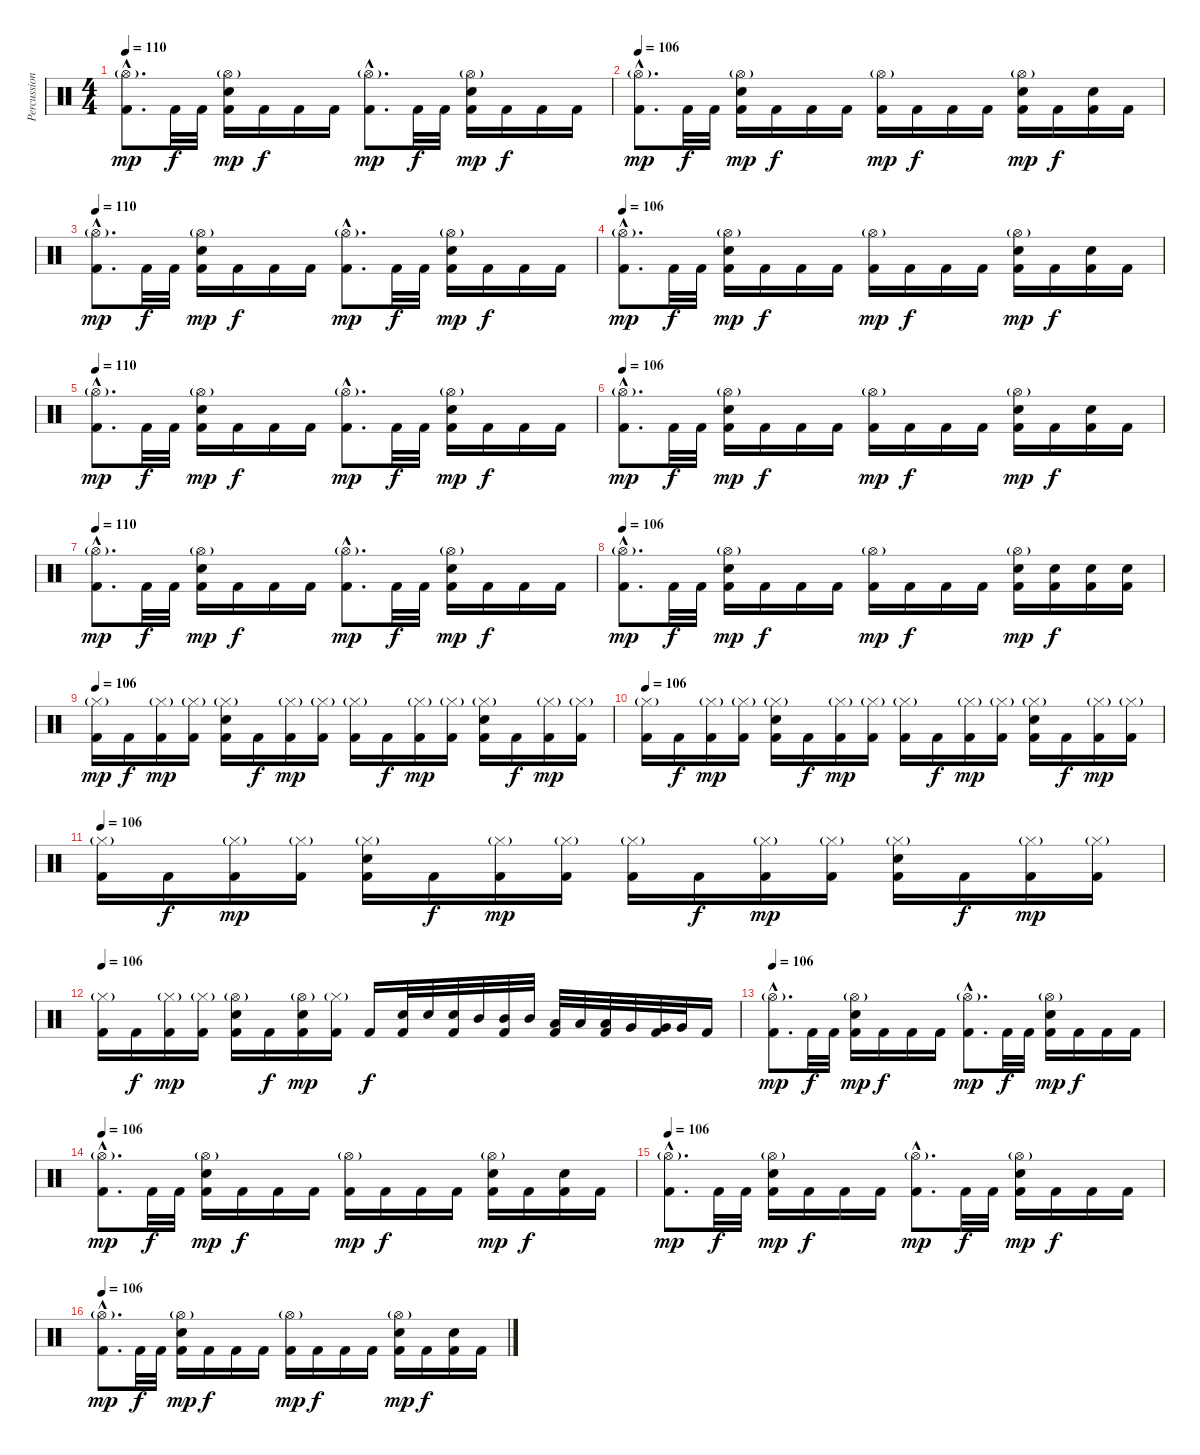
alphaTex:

\track ("Percussions" "Percussion") {instrument percussion}
\staff {score}
\articulation defaults
\ts (4 4)
\tempo 106
\tempo 110
\clef neutral
\ks c
("Hi-Hat (open)"{g hac} "Kick (hit) 2"{hac}).8{d dy mp} "Kick (hit) 2".32{dy f} "Kick (hit) 2".32 ("Hi-Hat (open)"{g} "Electric Snare (hit)" "Kick (hit) 2").16{dy mp} "Kick (hit) 2".16{dy f} "Kick (hit) 2".16 "Kick (hit) 2".16 ("Hi-Hat (open)"{g hac} "Kick (hit) 2"{hac}).8{d dy mp} "Kick (hit) 2".32{dy f} "Kick (hit) 2".32 ("Hi-Hat (open)"{g} "Electric Snare (hit)" "Kick (hit) 2").16{dy mp} "Kick (hit) 2".16{dy f} "Kick (hit) 2".16 "Kick (hit) 2".16 |
\tempo 106
("Hi-Hat (open)"{g hac} "Kick (hit) 2"{hac}).8{d dy mp} "Kick (hit) 2".32{dy f} "Kick (hit) 2".32 ("Hi-Hat (open)"{g} "Electric Snare (hit)" "Kick (hit) 2").16{dy mp} "Kick (hit) 2".16{dy f} "Kick (hit) 2".16 "Kick (hit) 2".16 ("Hi-Hat (open)"{g} "Kick (hit) 2").16{dy mp} "Kick (hit) 2".16{dy f} "Kick (hit) 2".16 "Kick (hit) 2".16 ("Hi-Hat (open)"{g} "Electric Snare (hit)" "Kick (hit) 2").16{dy mp} "Kick (hit) 2".16{dy f} ("Electric Snare (hit)" "Kick (hit) 2").16 "Kick (hit) 2".16 |
\tempo 106
\tempo 110
("Hi-Hat (open)"{g hac} "Kick (hit) 2"{hac}).8{d dy mp} "Kick (hit) 2".32{dy f} "Kick (hit) 2".32 ("Hi-Hat (open)"{g} "Electric Snare (hit)" "Kick (hit) 2").16{dy mp} "Kick (hit) 2".16{dy f} "Kick (hit) 2".16 "Kick (hit) 2".16 ("Hi-Hat (open)"{g hac} "Kick (hit) 2"{hac}).8{d dy mp} "Kick (hit) 2".32{dy f} "Kick (hit) 2".32 ("Hi-Hat (open)"{g} "Electric Snare (hit)" "Kick (hit) 2").16{dy mp} "Kick (hit) 2".16{dy f} "Kick (hit) 2".16 "Kick (hit) 2".16 |
\tempo 106
("Hi-Hat (open)"{g hac} "Kick (hit) 2"{hac}).8{d dy mp} "Kick (hit) 2".32{dy f} "Kick (hit) 2".32 ("Hi-Hat (open)"{g} "Electric Snare (hit)" "Kick (hit) 2").16{dy mp} "Kick (hit) 2".16{dy f} "Kick (hit) 2".16 "Kick (hit) 2".16 ("Hi-Hat (open)"{g} "Kick (hit) 2").16{dy mp} "Kick (hit) 2".16{dy f} "Kick (hit) 2".16 "Kick (hit) 2".16 ("Hi-Hat (open)"{g} "Electric Snare (hit)" "Kick (hit) 2").16{dy mp} "Kick (hit) 2".16{dy f} ("Electric Snare (hit)" "Kick (hit) 2").16 "Kick (hit) 2".16 |
\tempo 106
\tempo 110
("Hi-Hat (open)"{g hac} "Kick (hit) 2"{hac}).8{d dy mp} "Kick (hit) 2".32{dy f} "Kick (hit) 2".32 ("Hi-Hat (open)"{g} "Electric Snare (hit)" "Kick (hit) 2").16{dy mp} "Kick (hit) 2".16{dy f} "Kick (hit) 2".16 "Kick (hit) 2".16 ("Hi-Hat (open)"{g hac} "Kick (hit) 2"{hac}).8{d dy mp} "Kick (hit) 2".32{dy f} "Kick (hit) 2".32 ("Hi-Hat (open)"{g} "Electric Snare (hit)" "Kick (hit) 2").16{dy mp} "Kick (hit) 2".16{dy f} "Kick (hit) 2".16 "Kick (hit) 2".16 |
\tempo 106
("Hi-Hat (open)"{g hac} "Kick (hit) 2"{hac}).8{d dy mp} "Kick (hit) 2".32{dy f} "Kick (hit) 2".32 ("Hi-Hat (open)"{g} "Electric Snare (hit)" "Kick (hit) 2").16{dy mp} "Kick (hit) 2".16{dy f} "Kick (hit) 2".16 "Kick (hit) 2".16 ("Hi-Hat (open)"{g} "Kick (hit) 2").16{dy mp} "Kick (hit) 2".16{dy f} "Kick (hit) 2".16 "Kick (hit) 2".16 ("Hi-Hat (open)"{g} "Electric Snare (hit)" "Kick (hit) 2").16{dy mp} "Kick (hit) 2".16{dy f} ("Electric Snare (hit)" "Kick (hit) 2").16 "Kick (hit) 2".16 |
\tempo 106
\tempo 110
("Hi-Hat (open)"{g hac} "Kick (hit) 2"{hac}).8{d dy mp} "Kick (hit) 2".32{dy f} "Kick (hit) 2".32 ("Hi-Hat (open)"{g} "Electric Snare (hit)" "Kick (hit) 2").16{dy mp} "Kick (hit) 2".16{dy f} "Kick (hit) 2".16 "Kick (hit) 2".16 ("Hi-Hat (open)"{g hac} "Kick (hit) 2"{hac}).8{d dy mp} "Kick (hit) 2".32{dy f} "Kick (hit) 2".32 ("Hi-Hat (open)"{g} "Electric Snare (hit)" "Kick (hit) 2").16{dy mp} "Kick (hit) 2".16{dy f} "Kick (hit) 2".16 "Kick (hit) 2".16 |
\tempo 106
("Hi-Hat (open)"{g hac} "Kick (hit) 2"{hac}).8{d dy mp} "Kick (hit) 2".32{dy f} "Kick (hit) 2".32 ("Hi-Hat (open)"{g} "Electric Snare (hit)" "Kick (hit) 2").16{dy mp} "Kick (hit) 2".16{dy f} "Kick (hit) 2".16 "Kick (hit) 2".16 ("Hi-Hat (open)"{g} "Kick (hit) 2").16{dy mp} "Kick (hit) 2".16{dy f} "Kick (hit) 2".16 "Kick (hit) 2".16 ("Hi-Hat (open)"{g} "Electric Snare (hit)" "Kick (hit) 2").16{dy mp} ("Electric Snare (hit)" "Kick (hit) 2").16{dy f} ("Electric Snare (hit)" "Kick (hit) 2").16 ("Electric Snare (hit)" "Kick (hit) 2").16 |
\tempo 106
("Hi-Hat (closed)"{g} "Kick (hit) 2").16{dy mp} "Kick (hit) 2".16{dy f} ("Hi-Hat (closed)"{g} "Kick (hit) 2").16{dy mp} ("Hi-Hat (closed)"{g} "Kick (hit) 2").16 ("Hi-Hat (closed)"{g} "Electric Snare (hit)" "Kick (hit) 2").16 "Kick (hit) 2".16{dy f} ("Hi-Hat (closed)"{g} "Kick (hit) 2").16{dy mp} ("Hi-Hat (closed)"{g} "Kick (hit) 2").16 ("Hi-Hat (closed)"{g} "Kick (hit) 2").16 "Kick (hit) 2".16{dy f} ("Hi-Hat (closed)"{g} "Kick (hit) 2").16{dy mp} ("Hi-Hat (closed)"{g} "Kick (hit) 2").16 ("Hi-Hat (closed)"{g} "Electric Snare (hit)" "Kick (hit) 2").16 "Kick (hit) 2".16{dy f} ("Hi-Hat (closed)"{g} "Kick (hit) 2").16{dy mp} ("Hi-Hat (closed)"{g} "Kick (hit) 2").16 |
\tempo 106
("Hi-Hat (closed)"{g} "Kick (hit) 2").16 "Kick (hit) 2".16{dy f} ("Hi-Hat (closed)"{g} "Kick (hit) 2").16{dy mp} ("Hi-Hat (closed)"{g} "Kick (hit) 2").16 ("Hi-Hat (closed)"{g} "Electric Snare (hit)" "Kick (hit) 2").16 "Kick (hit) 2".16{dy f} ("Hi-Hat (closed)"{g} "Kick (hit) 2").16{dy mp} ("Hi-Hat (closed)"{g} "Kick (hit) 2").16 ("Hi-Hat (closed)"{g} "Kick (hit) 2").16 "Kick (hit) 2".16{dy f} ("Hi-Hat (closed)"{g} "Kick (hit) 2").16{dy mp} ("Hi-Hat (closed)"{g} "Kick (hit) 2").16 ("Hi-Hat (closed)"{g} "Electric Snare (hit)" "Kick (hit) 2").16 "Kick (hit) 2".16{dy f} ("Hi-Hat (closed)"{g} "Kick (hit) 2").16{dy mp} ("Hi-Hat (closed)"{g} "Kick (hit) 2").16 |
\tempo 106
("Hi-Hat (closed)"{g} "Kick (hit) 2").16 "Kick (hit) 2".16{dy f} ("Hi-Hat (closed)"{g} "Kick (hit) 2").16{dy mp} ("Hi-Hat (closed)"{g} "Kick (hit) 2").16 ("Hi-Hat (closed)"{g} "Electric Snare (hit)" "Kick (hit) 2").16 "Kick (hit) 2".16{dy f} ("Hi-Hat (closed)"{g} "Kick (hit) 2").16{dy mp} ("Hi-Hat (closed)"{g} "Kick (hit) 2").16 ("Hi-Hat (closed)"{g} "Kick (hit) 2").16 "Kick (hit) 2".16{dy f} ("Hi-Hat (closed)"{g} "Kick (hit) 2").16{dy mp} ("Hi-Hat (closed)"{g} "Kick (hit) 2").16 ("Hi-Hat (closed)"{g} "Electric Snare (hit)" "Kick (hit) 2").16 "Kick (hit) 2".16{dy f} ("Hi-Hat (closed)"{g} "Kick (hit) 2").16{dy mp} ("Hi-Hat (closed)"{g} "Kick (hit) 2").16 |
\tempo 106
("Hi-Hat (closed)"{g} "Kick (hit) 2").16 "Kick (hit) 2".16{dy f} ("Hi-Hat (closed)"{g} "Kick (hit) 2").16{dy mp} ("Hi-Hat (closed)"{g} "Kick (hit) 2").16 ("Hi-Hat (open)"{g} "Electric Snare (hit)" "Kick (hit) 2").16 "Kick (hit) 2".16{dy f} ("Hi-Hat (open)"{g} "Electric Snare (hit)" "Kick (hit) 2").16{dy mp} ("Hi-Hat (closed)"{g} "Kick (hit) 2").16 "Kick (hit) 2".16{dy f} ("Electric Snare (hit)" "Kick (hit) 2").32 "Electric Snare (hit)".32 ("Electric Snare (hit)" "Kick (hit) 2").32 "Mid Tom (hit)".32 ("Mid Tom (hit)" "Kick (hit) 2").32 "Mid Tom (hit)".32 ("Low Tom (hit)" "Kick (hit) 2").32 "Low Tom (hit)".32 ("Low Tom (hit)" "Kick (hit) 2").32 "Very Low Tom (hit)".32 ("Very Low Tom (hit)" "Kick (hit) 2").32 "Very Low Tom (hit)".32 "Kick (hit) 2".16 |
\tempo 106
("Hi-Hat (open)"{g hac} "Kick (hit) 2"{hac}).8{d dy mp} "Kick (hit) 2".32{dy f} "Kick (hit) 2".32 ("Hi-Hat (open)"{g} "Electric Snare (hit)" "Kick (hit) 2").16{dy mp} "Kick (hit) 2".16{dy f} "Kick (hit) 2".16 "Kick (hit) 2".16 ("Hi-Hat (open)"{g hac} "Kick (hit) 2"{hac}).8{d dy mp} "Kick (hit) 2".32{dy f} "Kick (hit) 2".32 ("Hi-Hat (open)"{g} "Electric Snare (hit)" "Kick (hit) 2").16{dy mp} "Kick (hit) 2".16{dy f} "Kick (hit) 2".16 "Kick (hit) 2".16 |
\tempo 106
("Hi-Hat (open)"{g hac} "Kick (hit) 2"{hac}).8{d dy mp} "Kick (hit) 2".32{dy f} "Kick (hit) 2".32 ("Hi-Hat (open)"{g} "Electric Snare (hit)" "Kick (hit) 2").16{dy mp} "Kick (hit) 2".16{dy f} "Kick (hit) 2".16 "Kick (hit) 2".16 ("Hi-Hat (open)"{g} "Kick (hit) 2").16{dy mp} "Kick (hit) 2".16{dy f} "Kick (hit) 2".16 "Kick (hit) 2".16 ("Hi-Hat (open)"{g} "Electric Snare (hit)" "Kick (hit) 2").16{dy mp} "Kick (hit) 2".16{dy f} ("Electric Snare (hit)" "Kick (hit) 2").16 "Kick (hit) 2".16 |
\tempo 106
("Hi-Hat (open)"{g hac} "Kick (hit) 2"{hac}).8{d dy mp} "Kick (hit) 2".32{dy f} "Kick (hit) 2".32 ("Hi-Hat (open)"{g} "Electric Snare (hit)" "Kick (hit) 2").16{dy mp} "Kick (hit) 2".16{dy f} "Kick (hit) 2".16 "Kick (hit) 2".16 ("Hi-Hat (open)"{g hac} "Kick (hit) 2"{hac}).8{d dy mp} "Kick (hit) 2".32{dy f} "Kick (hit) 2".32 ("Hi-Hat (open)"{g} "Electric Snare (hit)" "Kick (hit) 2").16{dy mp} "Kick (hit) 2".16{dy f} "Kick (hit) 2".16 "Kick (hit) 2".16 |
\tempo 106
("Hi-Hat (open)"{g hac} "Kick (hit) 2"{hac}).8{d dy mp} "Kick (hit) 2".32{dy f} "Kick (hit) 2".32 ("Hi-Hat (open)"{g} "Electric Snare (hit)" "Kick (hit) 2").16{dy mp} "Kick (hit) 2".16{dy f} "Kick (hit) 2".16 "Kick (hit) 2".16 ("Hi-Hat (open)"{g} "Kick (hit) 2").16{dy mp} "Kick (hit) 2".16{dy f} "Kick (hit) 2".16 "Kick (hit) 2".16 ("Hi-Hat (open)"{g} "Electric Snare (hit)" "Kick (hit) 2").16{dy mp} "Kick (hit) 2".16{dy f} ("Electric Snare (hit)" "Kick (hit) 2").16 "Kick (hit) 2".16
